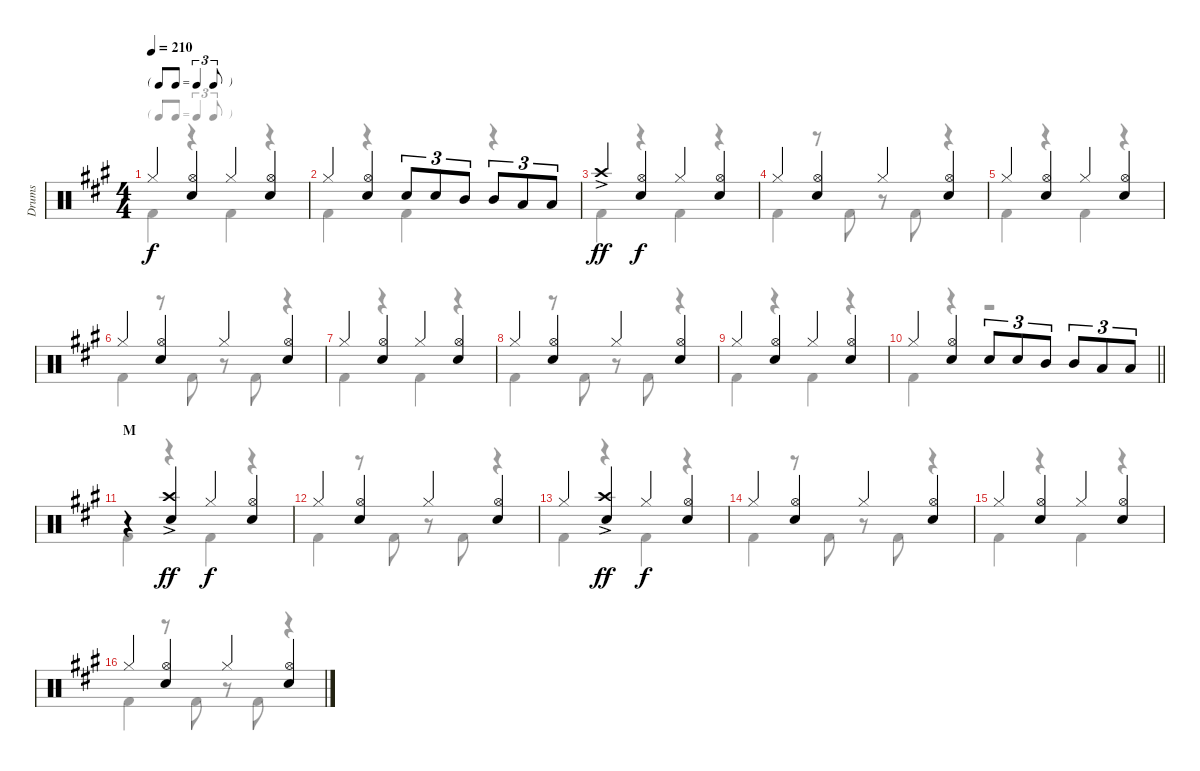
\track ("Drums" "Drums") {instrument percussion}
\staff {score}
\articulation defaults
\voice
\ts (4 4)
\tf triplet8th
\tempo 210
\clef neutral
\ks a "Hi-Hat (closed)".4{dy f}
("Hi-Hat (open)" "Snare (hit) 2").4 "Hi-Hat (closed)".4 ("Hi-Hat (open)" "Snare (hit) 2").4 |
"Hi-Hat (closed)".4 ("Hi-Hat (open)" "Snare (hit) 2").4 "Snare (hit) 2".8{tu (3 2)} "Snare (hit) 2".8{tu (3 2)} "Mid Tom (hit)".8{tu (3 2)} "Mid Tom (hit)".8{tu (3 2)} "Low Tom (hit)".8{tu (3 2)} "Low Tom (hit)".8{tu (3 2)} |
"Crash high (hit)"{ac}.4{dy ff} ("Hi-Hat (open)" "Snare (hit) 2").4{dy f} "Hi-Hat (closed)".4 ("Hi-Hat (open)" "Snare (hit) 2").4 |
"Hi-Hat (closed)".4 ("Hi-Hat (open)" "Snare (hit) 2").4 "Hi-Hat (closed)".4 ("Hi-Hat (open)" "Snare (hit) 2").4 |
"Hi-Hat (closed)".4 ("Hi-Hat (open)" "Snare (hit) 2").4 "Hi-Hat (closed)".4 ("Hi-Hat (open)" "Snare (hit) 2").4 |
"Hi-Hat (closed)".4 ("Hi-Hat (open)" "Snare (hit) 2").4 "Hi-Hat (closed)".4 ("Hi-Hat (open)" "Snare (hit) 2").4 |
"Hi-Hat (closed)".4 ("Hi-Hat (open)" "Snare (hit) 2").4 "Hi-Hat (closed)".4 ("Hi-Hat (open)" "Snare (hit) 2").4 |
"Hi-Hat (closed)".4 ("Hi-Hat (open)" "Snare (hit) 2").4 "Hi-Hat (closed)".4 ("Hi-Hat (open)" "Snare (hit) 2").4 |
"Hi-Hat (closed)".4 ("Hi-Hat (open)" "Snare (hit) 2").4 "Hi-Hat (closed)".4 ("Hi-Hat (open)" "Snare (hit) 2").4 |
\barLineRight lightlight "Hi-Hat (closed)".4
("Hi-Hat (open)" "Snare (hit) 2").4 "Snare (hit) 2".8{tu (3 2)} "Snare (hit) 2".8{tu (3 2)} "Mid Tom (hit)".8{tu (3 2)} "Mid Tom (hit)".8{tu (3 2)} "Low Tom (hit)".8{tu (3 2)} "Low Tom (hit)".8{tu (3 2)} |
\section ("" "M")
r.4 ("Crash high (hit)"{ac} "Snare (hit) 2").4{dy ff} "Hi-Hat (closed)".4{dy f} ("Hi-Hat (open)" "Snare (hit) 2").4 |
"Hi-Hat (closed)".4 ("Hi-Hat (open)" "Snare (hit) 2").4 "Hi-Hat (closed)".4 ("Hi-Hat (open)" "Snare (hit) 2").4 |
"Hi-Hat (closed)".4 ("Crash high (hit)"{ac} "Snare (hit) 2").4{dy ff} "Hi-Hat (closed)".4{dy f} ("Hi-Hat (open)" "Snare (hit) 2").4 |
"Hi-Hat (closed)".4 ("Hi-Hat (open)" "Snare (hit) 2").4 "Hi-Hat (closed)".4 ("Hi-Hat (open)" "Snare (hit) 2").4 |
"Hi-Hat (closed)".4 ("Hi-Hat (open)" "Snare (hit) 2").4 "Hi-Hat (closed)".4 ("Hi-Hat (open)" "Snare (hit) 2").4 |
"Hi-Hat (closed)".4 ("Hi-Hat (open)" "Snare (hit) 2").4 "Hi-Hat (closed)".4 ("Hi-Hat (open)" "Snare (hit) 2").4
\voice
\clef neutral
\ottava regular
\simile none
\ks a "Kick (hit) 2".4{dy f}
r.4 "Kick (hit) 2".4 r.4 |
"Kick (hit) 2".4 r.4 "Kick (hit) 2".4 r.4 |
"Kick (hit) 2".4 r.4 "Kick (hit) 2".4 r.4 |
"Kick (hit) 2".4 r.8 "Kick (hit) 2".8 r.8 "Kick (hit) 2".8 r.4 |
"Kick (hit) 2".4 r.4 "Kick (hit) 2".4 r.4 |
"Kick (hit) 2".4 r.8 "Kick (hit) 2".8 r.8 "Kick (hit) 2".8 r.4 |
"Kick (hit) 2".4 r.4 "Kick (hit) 2".4 r.4 |
"Kick (hit) 2".4 r.8 "Kick (hit) 2".8 r.8 "Kick (hit) 2".8 r.4 |
"Kick (hit) 2".4 r.4 "Kick (hit) 2".4 r.4 |
\barLineRight lightlight "Kick (hit) 2".4
r.4 r.2 |
"Kick (hit) 2".4 r.4 "Kick (hit) 2".4 r.4 |
"Kick (hit) 2".4 r.8 "Kick (hit) 2".8 r.8 "Kick (hit) 2".8 r.4 |
"Kick (hit) 2".4 r.4 "Kick (hit) 2".4 r.4 |
"Kick (hit) 2".4 r.8 "Kick (hit) 2".8 r.8 "Kick (hit) 2".8 r.4 |
"Kick (hit) 2".4 r.4 "Kick (hit) 2".4 r.4 |
"Kick (hit) 2".4 r.8 "Kick (hit) 2".8 r.8 "Kick (hit) 2".8 r.4
